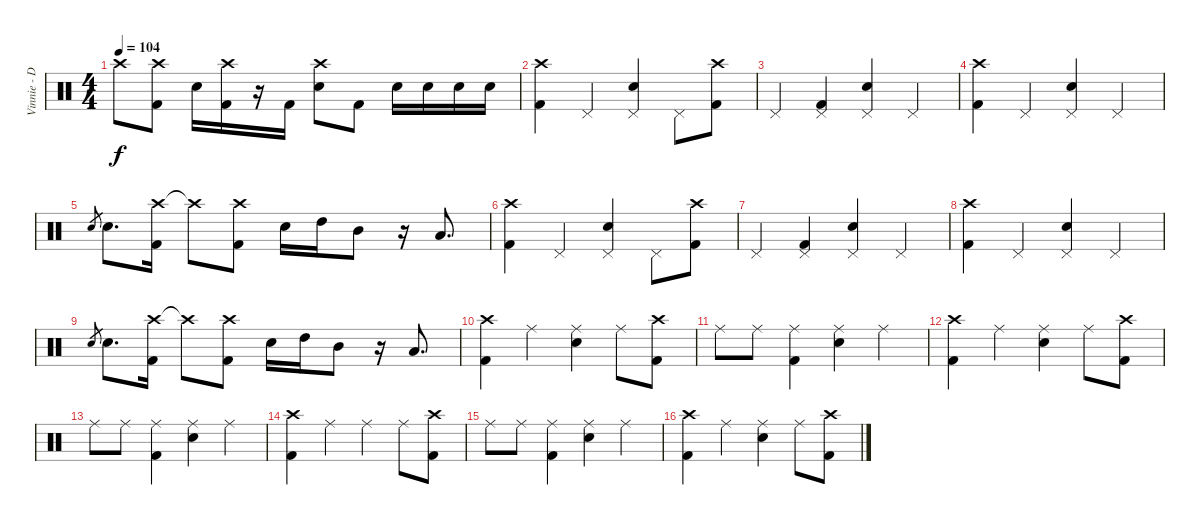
\track ("Vinnie - Drums" "Vinnie - D") {instrument percussion}
\staff {score}
\articulation defaults
\ts (4 4)
\tempo 104
\clef neutral
\ks c "Crash high (hit)".8{dy f}
("Crash high (hit)" "Kick (hit) 2").8 "Electric Snare (hit)".16 ("Crash high (hit)" "Kick (hit) 2").16 r.16 "Kick (hit) 2".16 ("Crash high (hit)" "Electric Snare (hit)").8 "Kick (hit) 2".8 "Electric Snare (hit)".16 "Electric Snare (hit)".16 "Electric Snare (hit)".16 "Electric Snare (hit)".16 |
("Crash high (hit)" "Kick (hit) 2").4 "Pedal Hi-Hat (hit)".4 ("Pedal Hi-Hat (hit)" "Electric Snare (hit)").4 "Pedal Hi-Hat (hit)".8 ("Crash high (hit)" "Kick (hit) 2").8 |
"Pedal Hi-Hat (hit)".4 ("Pedal Hi-Hat (hit)" "Kick (hit) 2").4 ("Pedal Hi-Hat (hit)" "Electric Snare (hit)").4 "Pedal Hi-Hat (hit)".4 |
("Crash high (hit)" "Kick (hit) 2").4 "Pedal Hi-Hat (hit)".4 ("Pedal Hi-Hat (hit)" "Electric Snare (hit)").4 "Pedal Hi-Hat (hit)".4 |
"Electric Snare (hit)".8{gr} "Electric Snare (hit)".8{d} ("Crash high (hit)" "Kick (hit) 2").16 "Crash high (hit)"{t}.8 ("Crash high (hit)" "Kick (hit) 2").8 "Electric Snare (hit)".16 "High Tom (hit)".16 "Mid Tom (hit)".8 r.16 "Low Tom (hit)".8{d} |
("Crash high (hit)" "Kick (hit) 2").4 "Pedal Hi-Hat (hit)".4 ("Pedal Hi-Hat (hit)" "Electric Snare (hit)").4 "Pedal Hi-Hat (hit)".8 ("Crash high (hit)" "Kick (hit) 2").8 |
"Pedal Hi-Hat (hit)".4 ("Pedal Hi-Hat (hit)" "Kick (hit) 2").4 ("Pedal Hi-Hat (hit)" "Electric Snare (hit)").4 "Pedal Hi-Hat (hit)".4 |
("Crash high (hit)" "Kick (hit) 2").4 "Pedal Hi-Hat (hit)".4 ("Pedal Hi-Hat (hit)" "Electric Snare (hit)").4 "Pedal Hi-Hat (hit)".4 |
"Electric Snare (hit)".8{gr} "Electric Snare (hit)".8{d} ("Crash high (hit)" "Kick (hit) 2").16 "Crash high (hit)"{t}.8 ("Crash high (hit)" "Kick (hit) 2").8 "Electric Snare (hit)".16 "High Tom (hit)".16 "Mid Tom (hit)".8 r.16 "Low Tom (hit)".8{d} |
("Crash high (hit)" "Kick (hit) 2").4 "Ride (middle)".4 ("Ride (middle)" "Electric Snare (hit)").4 "Ride (middle)".8 ("Crash high (hit)" "Kick (hit) 2").8 |
"Ride (middle)".8 "Ride (middle)".8 ("Ride (middle)" "Kick (hit) 2").4 ("Ride (middle)" "Electric Snare (hit)").4 "Ride (middle)".4 |
("Crash high (hit)" "Kick (hit) 2").4 "Ride (middle)".4 ("Ride (middle)" "Electric Snare (hit)").4 "Ride (middle)".8 ("Crash high (hit)" "Kick (hit) 2").8 |
"Ride (middle)".8 "Ride (middle)".8 ("Ride (middle)" "Kick (hit) 2").4 ("Ride (middle)" "Electric Snare (hit)").4 "Ride (middle)".4 |
("Crash high (hit)" "Kick (hit) 2").4 "Ride (middle)".4 "Ride (middle)".4 "Ride (middle)".8 ("Crash high (hit)" "Kick (hit) 2").8 |
"Ride (middle)".8 "Ride (middle)".8 ("Ride (middle)" "Kick (hit) 2").4 ("Ride (middle)" "Electric Snare (hit)").4 "Ride (middle)".4 |
("Crash high (hit)" "Kick (hit) 2").4 "Ride (middle)".4 ("Ride (middle)" "Electric Snare (hit)").4 "Ride (middle)".8 ("Crash high (hit)" "Kick (hit) 2").8
